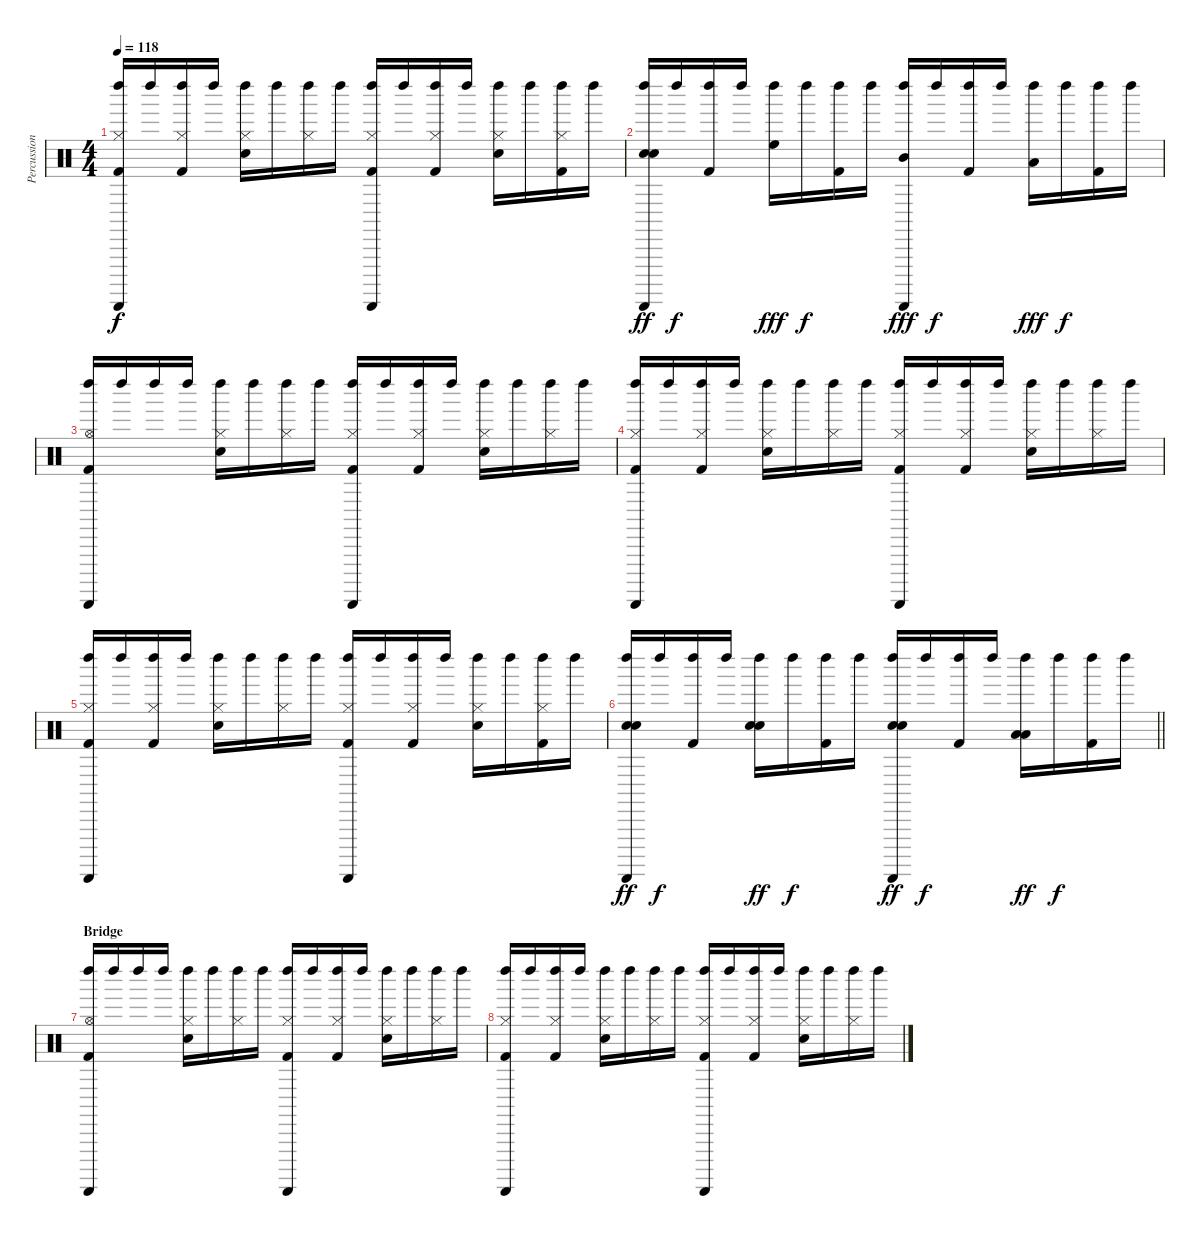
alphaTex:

\track ("Percussions" "Percussion") {instrument percussion}
\staff {score}
\articulation defaults
\ts (4 4)
\tempo 118
\clef neutral
\ks c
("Guiro (scrap-return)" "Left Maraca (hit)" "Hi-Hat (closed)" "Kick (hit) 2").16{dy f} "Left Maraca (hit)".16 ("Left Maraca (hit)" "Hi-Hat (closed)" "Kick (hit) 2").16 "Left Maraca (hit)".16 ("Left Maraca (hit)" "Hi-Hat (closed)" "Snare (hit) 2").16 "Left Maraca (hit)".16 ("Left Maraca (hit)" "Hi-Hat (closed)").16 "Left Maraca (hit)".16 ("Guiro (scrap-return)" "Left Maraca (hit)" "Hi-Hat (closed)" "Kick (hit) 2").16 "Left Maraca (hit)".16 ("Left Maraca (hit)" "Hi-Hat (closed)" "Kick (hit) 2").16 "Left Maraca (hit)".16 ("Left Maraca (hit)" "Hi-Hat (closed)" "Snare (hit) 2").16 "Left Maraca (hit)".16 ("Left Maraca (hit)" "Hi-Hat (closed)" "Kick (hit) 2").16 "Left Maraca (hit)".16 |
("Guiro (scrap-return)" "Left Maraca (hit)" "Snare (hit) 2" "Snare (hit) 2").16{dy ff} "Left Maraca (hit)".16{dy f} ("Left Maraca (hit)" "Kick (hit) 2").16 "Left Maraca (hit)".16 ("Left Maraca (hit)" "High Floor Tom (hit)").16{dy fff} "Left Maraca (hit)".16{dy f} ("Left Maraca (hit)" "Kick (hit) 2").16 "Left Maraca (hit)".16 ("Guiro (scrap-return)" "Left Maraca (hit)" "Mid Tom (hit)").16{dy fff} "Left Maraca (hit)".16{dy f} ("Left Maraca (hit)" "Kick (hit) 2").16 "Left Maraca (hit)".16 ("Left Maraca (hit)" "Low Tom (hit)").16{dy fff} "Left Maraca (hit)".16{dy f} ("Left Maraca (hit)" "Kick (hit) 2").16 "Left Maraca (hit)".16 |
("Guiro (scrap-return)" "Left Maraca (hit)" "Hi-Hat (open)" "Kick (hit) 2").16 "Left Maraca (hit)".16 "Left Maraca (hit)".16 "Left Maraca (hit)".16 ("Left Maraca (hit)" "Hi-Hat (closed)" "Snare (hit) 2").16 "Left Maraca (hit)".16 ("Left Maraca (hit)" "Hi-Hat (closed)").16 "Left Maraca (hit)".16 ("Guiro (scrap-return)" "Left Maraca (hit)" "Hi-Hat (closed)" "Kick (hit) 2").16 "Left Maraca (hit)".16 ("Left Maraca (hit)" "Hi-Hat (closed)" "Kick (hit) 2").16 "Left Maraca (hit)".16 ("Left Maraca (hit)" "Hi-Hat (closed)" "Snare (hit) 2").16 "Left Maraca (hit)".16 ("Left Maraca (hit)" "Hi-Hat (closed)").16 "Left Maraca (hit)".16 |
("Guiro (scrap-return)" "Left Maraca (hit)" "Hi-Hat (closed)" "Kick (hit) 2").16 "Left Maraca (hit)".16 ("Left Maraca (hit)" "Hi-Hat (closed)" "Kick (hit) 2").16 "Left Maraca (hit)".16 ("Left Maraca (hit)" "Hi-Hat (closed)" "Snare (hit) 2").16 "Left Maraca (hit)".16 ("Left Maraca (hit)" "Hi-Hat (closed)").16 "Left Maraca (hit)".16 ("Guiro (scrap-return)" "Left Maraca (hit)" "Hi-Hat (closed)" "Kick (hit) 2").16 "Left Maraca (hit)".16 ("Left Maraca (hit)" "Hi-Hat (closed)" "Kick (hit) 2").16 "Left Maraca (hit)".16 ("Left Maraca (hit)" "Hi-Hat (closed)" "Snare (hit) 2").16 "Left Maraca (hit)".16 ("Left Maraca (hit)" "Hi-Hat (closed)").16 "Left Maraca (hit)".16 |
("Guiro (scrap-return)" "Left Maraca (hit)" "Hi-Hat (closed)" "Kick (hit) 2").16 "Left Maraca (hit)".16 ("Left Maraca (hit)" "Hi-Hat (closed)" "Kick (hit) 2").16 "Left Maraca (hit)".16 ("Left Maraca (hit)" "Hi-Hat (closed)" "Snare (hit) 2").16 "Left Maraca (hit)".16 ("Left Maraca (hit)" "Hi-Hat (closed)").16 "Left Maraca (hit)".16 ("Guiro (scrap-return)" "Left Maraca (hit)" "Hi-Hat (closed)" "Kick (hit) 2").16 "Left Maraca (hit)".16 ("Left Maraca (hit)" "Hi-Hat (closed)" "Kick (hit) 2").16 "Left Maraca (hit)".16 ("Left Maraca (hit)" "Hi-Hat (closed)" "Snare (hit) 2").16 "Left Maraca (hit)".16 ("Left Maraca (hit)" "Hi-Hat (closed)" "Kick (hit) 2").16 "Left Maraca (hit)".16 |
\barLineRight lightlight
("Guiro (scrap-return)" "Left Maraca (hit)" "Snare (hit) 2" "Snare (hit) 2").16{dy ff} "Left Maraca (hit)".16{dy f} ("Left Maraca (hit)" "Kick (hit) 2").16 "Left Maraca (hit)".16 ("Left Maraca (hit)" "Snare (hit) 2" "Snare (hit) 2").16{dy ff} "Left Maraca (hit)".16{dy f} ("Left Maraca (hit)" "Kick (hit) 2").16 "Left Maraca (hit)".16 ("Guiro (scrap-return)" "Left Maraca (hit)" "Snare (hit) 2" "Snare (hit) 2").16{dy ff} "Left Maraca (hit)".16{dy f} ("Left Maraca (hit)" "Kick (hit) 2").16 "Left Maraca (hit)".16 ("Left Maraca (hit)" "Low Tom (hit)" "Low Tom (hit)").16{dy ff} "Left Maraca (hit)".16{dy f} ("Left Maraca (hit)" "Kick (hit) 2").16 "Left Maraca (hit)".16 |
\section ("" "Bridge")
("Guiro (scrap-return)" "Left Maraca (hit)" "Hi-Hat (open)" "Kick (hit) 2").16 "Left Maraca (hit)".16 "Left Maraca (hit)".16 "Left Maraca (hit)".16 ("Left Maraca (hit)" "Hi-Hat (closed)" "Snare (hit) 2").16 "Left Maraca (hit)".16 ("Left Maraca (hit)" "Hi-Hat (closed)").16 "Left Maraca (hit)".16 ("Guiro (scrap-return)" "Left Maraca (hit)" "Hi-Hat (closed)" "Kick (hit) 2").16 "Left Maraca (hit)".16 ("Left Maraca (hit)" "Hi-Hat (closed)" "Kick (hit) 2").16 "Left Maraca (hit)".16 ("Left Maraca (hit)" "Hi-Hat (closed)" "Snare (hit) 2").16 "Left Maraca (hit)".16 ("Left Maraca (hit)" "Hi-Hat (closed)").16 "Left Maraca (hit)".16 |
("Guiro (scrap-return)" "Left Maraca (hit)" "Hi-Hat (closed)" "Kick (hit) 2").16 "Left Maraca (hit)".16 ("Left Maraca (hit)" "Hi-Hat (closed)" "Kick (hit) 2").16 "Left Maraca (hit)".16 ("Left Maraca (hit)" "Hi-Hat (closed)" "Snare (hit) 2").16 "Left Maraca (hit)".16 ("Left Maraca (hit)" "Hi-Hat (closed)").16 "Left Maraca (hit)".16 ("Guiro (scrap-return)" "Left Maraca (hit)" "Hi-Hat (closed)" "Kick (hit) 2").16 "Left Maraca (hit)".16 ("Left Maraca (hit)" "Hi-Hat (closed)" "Kick (hit) 2").16 "Left Maraca (hit)".16 ("Left Maraca (hit)" "Hi-Hat (closed)" "Snare (hit) 2").16 "Left Maraca (hit)".16 ("Left Maraca (hit)" "Hi-Hat (closed)").16 "Left Maraca (hit)".16
